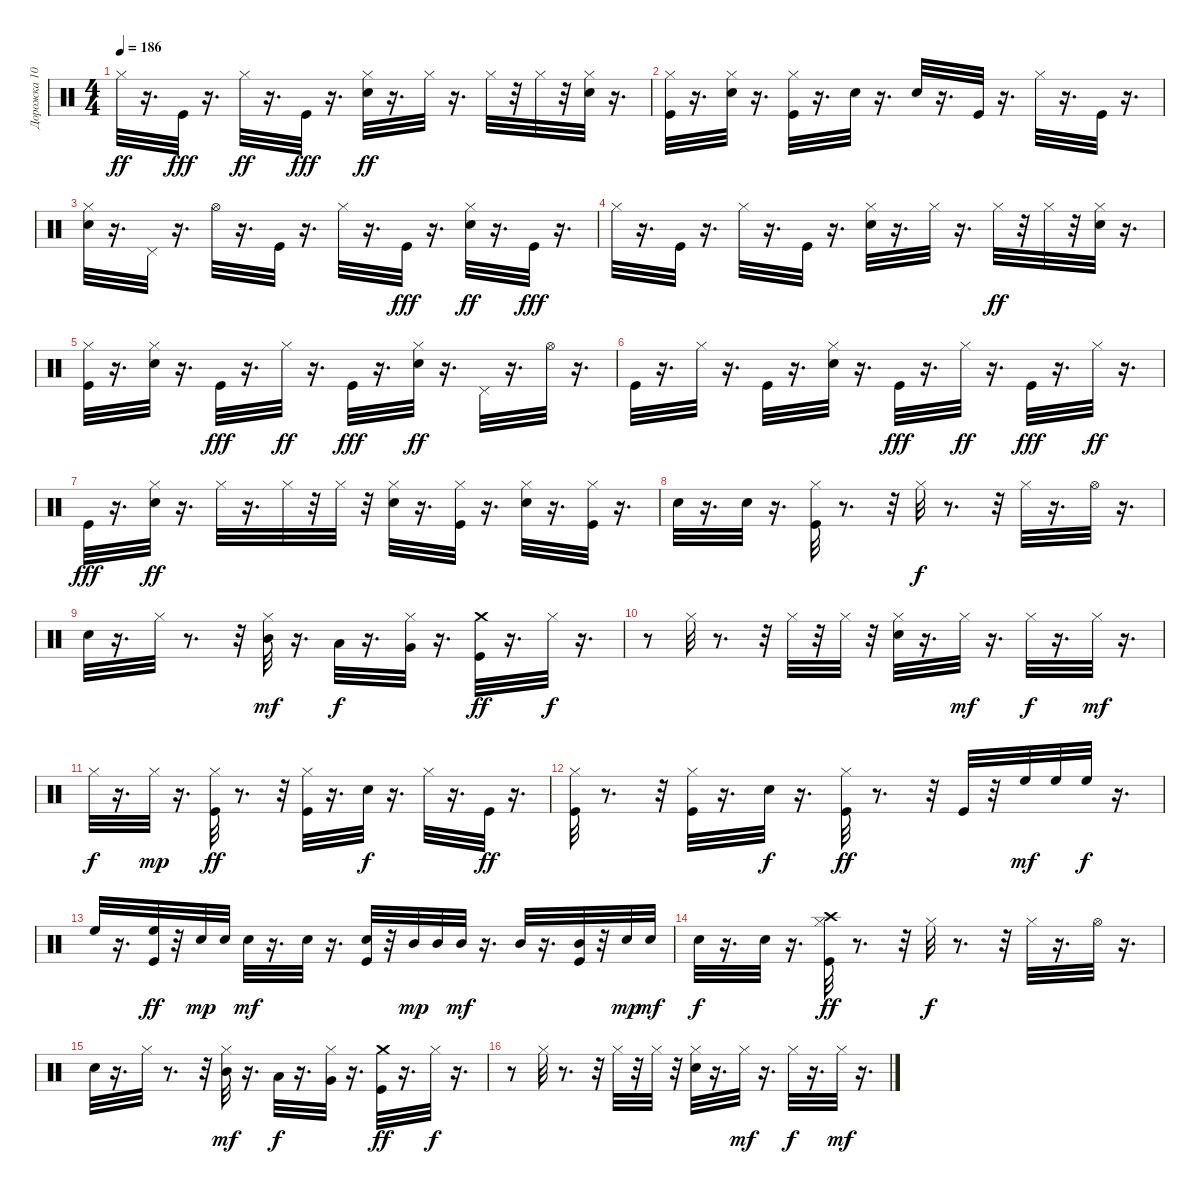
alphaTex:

\track ("Дорожка 10" "Дорожка 10") {instrument percussion}
\staff {score}
\articulation defaults
\ts (4 4)
\tempo 186
\clef neutral
\ks c "Hi-Hat (closed)".32{dy ff}
r.16{d} "Kick (hit)".32{dy fff} r.16{d} "Hi-Hat (closed)".32{dy ff} r.16{d} "Kick (hit)".32{dy fff} r.16{d} ("Electric Snare (hit)" "Hi-Hat (closed)").32{dy ff} r.16{d} "Hi-Hat (closed)".32 r.16{d} "Hi-Hat (closed)".32 r.32 "Hi-Hat (closed)".32 r.32 ("Hi-Hat (closed)" "Electric Snare (hit)").32 r.16{d} |
("Kick (hit)" "Hi-Hat (closed)").32 r.16{d} ("Hi-Hat (closed)" "Electric Snare (hit)").32 r.16{d} ("Kick (hit)" "Hi-Hat (closed)").32 r.16{d} "Electric Snare (hit)".32 r.16{d} "Electric Snare (hit)".32 r.16{d} "Kick (hit)".32 r.16{d} "Hi-Hat (closed)".32 r.16{d} "Kick (hit)".32 r.16{d} |
("Hi-Hat (closed)" "Electric Snare (hit)").32 r.16{d} "Pedal Hi-Hat (hit)".32 r.16{d} "Hi-Hat (open)".32 r.16{d} "Kick (hit)".32 r.16{d} "Hi-Hat (closed)".32 r.16{d} "Kick (hit)".32{dy fff} r.16{d} ("Hi-Hat (closed)" "Electric Snare (hit)").32{dy ff} r.16{d} "Kick (hit)".32{dy fff} r.16{d} |
"Hi-Hat (closed)".32 r.16{d} "Kick (hit)".32 r.16{d} "Hi-Hat (closed)".32 r.16{d} "Kick (hit)".32 r.16{d} ("Electric Snare (hit)" "Hi-Hat (closed)").32 r.16{d} "Hi-Hat (closed)".32 r.16{d} "Hi-Hat (closed)".32{dy ff} r.32 "Hi-Hat (closed)".32 r.32 ("Hi-Hat (closed)" "Electric Snare (hit)").32 r.16{d} |
("Kick (hit)" "Hi-Hat (closed)").32 r.16{d} ("Hi-Hat (closed)" "Electric Snare (hit)").32 r.16{d} "Kick (hit)".32{dy fff} r.16{d} "Hi-Hat (closed)".32{dy ff} r.16{d} "Kick (hit)".32{dy fff} r.16{d} ("Hi-Hat (closed)" "Electric Snare (hit)").32{dy ff} r.16{d} "Pedal Hi-Hat (hit)".32 r.16{d} "Hi-Hat (open)".32 r.16{d} |
"Kick (hit)".32 r.16{d} "Hi-Hat (closed)".32 r.16{d} "Kick (hit)".32 r.16{d} ("Hi-Hat (closed)" "Electric Snare (hit)").32 r.16{d} "Kick (hit)".32{dy fff} r.16{d} "Hi-Hat (closed)".32{dy ff} r.16{d} "Kick (hit)".32{dy fff} r.16{d} "Hi-Hat (closed)".32{dy ff} r.16{d} |
"Kick (hit)".32{dy fff} r.16{d} ("Electric Snare (hit)" "Hi-Hat (closed)").32{dy ff} r.16{d} "Hi-Hat (closed)".32 r.16{d} "Hi-Hat (closed)".32 r.32 "Hi-Hat (closed)".32 r.32 ("Hi-Hat (closed)" "Electric Snare (hit)").32 r.16{d} ("Kick (hit)" "Hi-Hat (closed)").32 r.16{d} ("Hi-Hat (closed)" "Electric Snare (hit)").32 r.16{d} ("Kick (hit)" "Hi-Hat (closed)").32 r.16{d} |
"Electric Snare (hit)".32 r.16{d} "Electric Snare (hit)".32 r.16{d} ("Kick (hit)" "Hi-Hat (closed)").32 r.8{d} r.32 "Hi-Hat (closed)".32{dy f} r.8{d} r.32 "Hi-Hat (closed)".32 r.16{d} "Hi-Hat (open)".32 r.16{d} |
"Electric Snare (hit)".32 r.16{d} "Hi-Hat (closed)".32 r.8{d} r.32 ("Mid Tom (hit)" "Hi-Hat (closed)").32{dy mf} r.16{d} "Low Tom (hit)".32{dy f} r.16{d} ("Very Low Tom (hit)" "Hi-Hat (closed)").32 r.16{d} ("Kick (hit)" "Crash medium (hit)").32{dy ff} r.16{d} "Hi-Hat (closed)".32{dy f} r.16{d} |
r.8 "Hi-Hat (closed)".32 r.8{d} r.32 "Hi-Hat (closed)".32 r.32 "Hi-Hat (closed)".32 r.32 ("Electric Snare (hit)" "Hi-Hat (closed)").32 r.16{d} "Hi-Hat (closed)".32{dy mf} r.16{d} "Hi-Hat (closed)".32{dy f} r.16{d} "Hi-Hat (closed)".32{dy mf} r.16{d} |
"Hi-Hat (closed)".32{dy f} r.16{d} "Hi-Hat (closed)".32{dy mp} r.16{d} ("Kick (hit)" "Hi-Hat (closed)").32{dy ff} r.8{d} r.32 ("Kick (hit)" "Hi-Hat (closed)").32 r.16{d} "Electric Snare (hit)".32{dy f} r.16{d} "Hi-Hat (closed)".32 r.16{d} "Kick (hit)".32{dy ff} r.16{d} |
("Kick (hit)" "Hi-Hat (closed)").32 r.8{d} r.32 ("Kick (hit)" "Hi-Hat (closed)").32 r.16{d} "Electric Snare (hit)".32{dy f} r.16{d} ("Kick (hit)" "Hi-Hat (closed)").32{dy ff} r.8{d} r.32 "Kick (hit)".32 r.32 "High Floor Tom (hit)".32{dy mf} "High Floor Tom (hit)".32 "High Floor Tom (hit)".32{dy f} r.16{d} |
"High Floor Tom (hit)".32 r.16{d} ("Kick (hit)" "High Floor Tom (hit)").32{dy ff} r.32 "Electric Snare (hit)".32{dy mp} "Electric Snare (hit)".32 "Electric Snare (hit)".32{dy mf} r.16{d} "Electric Snare (hit)".32 r.16{d} ("Kick (hit)" "Electric Snare (hit)").32 r.32 "Mid Tom (hit)".32{dy mp} "Mid Tom (hit)".32 "Mid Tom (hit)".32{dy mf} r.16{d} "Mid Tom (hit)".32 r.16{d} ("Kick (hit)" "Mid Tom (hit)").32 r.32 "Electric Snare (hit)".32{dy mp} "Electric Snare (hit)".32{dy mf} |
"Electric Snare (hit)".32{dy f} r.16{d} "Electric Snare (hit)".32 r.16{d} ("Kick (hit)" "Hi-Hat (closed)" "Crash high (hit)").32{dy ff} r.8{d} r.32 "Hi-Hat (closed)".32{dy f} r.8{d} r.32 "Hi-Hat (closed)".32 r.16{d} "Hi-Hat (open)".32 r.16{d} |
"Electric Snare (hit)".32 r.16{d} "Hi-Hat (closed)".32 r.8{d} r.32 ("Mid Tom (hit)" "Hi-Hat (closed)").32{dy mf} r.16{d} "Low Tom (hit)".32{dy f} r.16{d} ("Very Low Tom (hit)" "Hi-Hat (closed)").32 r.16{d} ("Kick (hit)" "Crash medium (hit)").32{dy ff} r.16{d} "Hi-Hat (closed)".32{dy f} r.16{d} |
r.8 "Hi-Hat (closed)".32 r.8{d} r.32 "Hi-Hat (closed)".32 r.32 "Hi-Hat (closed)".32 r.32 ("Hi-Hat (closed)" "Electric Snare (hit)").32 r.16{d} "Hi-Hat (closed)".32{dy mf} r.16{d} "Hi-Hat (closed)".32{dy f} r.16{d} "Hi-Hat (closed)".32{dy mf} r.16{d}
